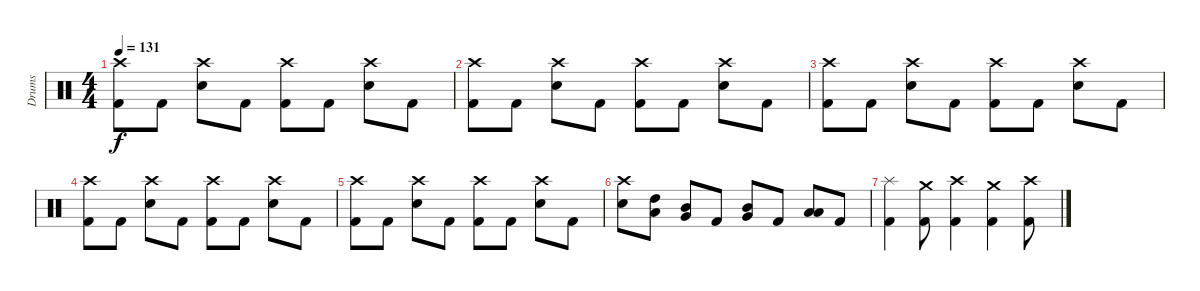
\track ("Drums" "Drums") {instrument percussion}
\staff {score}
\articulation defaults
\ts (4 4)
\tempo 131
\clef neutral
\ks c
("Crash high (hit)" "Kick (hit) 2").8{dy f} "Kick (hit) 2".8 ("Crash high (hit)" "Electric Snare (hit)").8 "Kick (hit) 2".8 ("Crash high (hit)" "Kick (hit) 2").8 "Kick (hit) 2".8 ("Crash high (hit)" "Electric Snare (hit)").8 "Kick (hit) 2".8 |
("Crash high (hit)" "Kick (hit) 2").8 "Kick (hit) 2".8 ("Crash high (hit)" "Electric Snare (hit)").8 "Kick (hit) 2".8 ("Crash high (hit)" "Kick (hit) 2").8 "Kick (hit) 2".8 ("Crash high (hit)" "Electric Snare (hit)").8 "Kick (hit) 2".8 |
("Crash high (hit)" "Kick (hit) 2").8 "Kick (hit) 2".8 ("Crash high (hit)" "Electric Snare (hit)").8 "Kick (hit) 2".8 ("Crash high (hit)" "Kick (hit) 2").8 "Kick (hit) 2".8 ("Crash high (hit)" "Electric Snare (hit)").8 "Kick (hit) 2".8 |
("Crash high (hit)" "Kick (hit) 2").8 "Kick (hit) 2".8 ("Crash high (hit)" "Electric Snare (hit)").8 "Kick (hit) 2".8 ("Crash high (hit)" "Kick (hit) 2").8 "Kick (hit) 2".8 ("Crash high (hit)" "Electric Snare (hit)").8 "Kick (hit) 2".8 |
("Crash high (hit)" "Kick (hit) 2").8 "Kick (hit) 2".8 ("Crash high (hit)" "Electric Snare (hit)").8 "Kick (hit) 2".8 ("Crash high (hit)" "Kick (hit) 2").8 "Kick (hit) 2".8 ("Crash high (hit)" "Electric Snare (hit)").8 "Kick (hit) 2".8 |
("Crash high (hit)" "Electric Snare (hit)").8 ("High Tom (hit)" "Low Tom (hit)").8 ("Mid Tom (hit)" "Very Low Tom (hit)").8 "Kick (hit) 2".8 ("Mid Tom (hit)" "Very Low Tom (hit)").8 "Kick (hit) 2".8 ("Low Tom (hit)" "Low Floor Tom (hit)").8 "Kick (hit) 2".8 |
("Splash (hit)" "Kick (hit) 2").4 ("Crash medium (hit)" "Kick (hit) 2").8 ("Crash high (hit)" "Kick (hit) 2").4 ("Crash medium (hit)" "Kick (hit) 2").4 ("Crash high (hit)" "Kick (hit) 2").8
